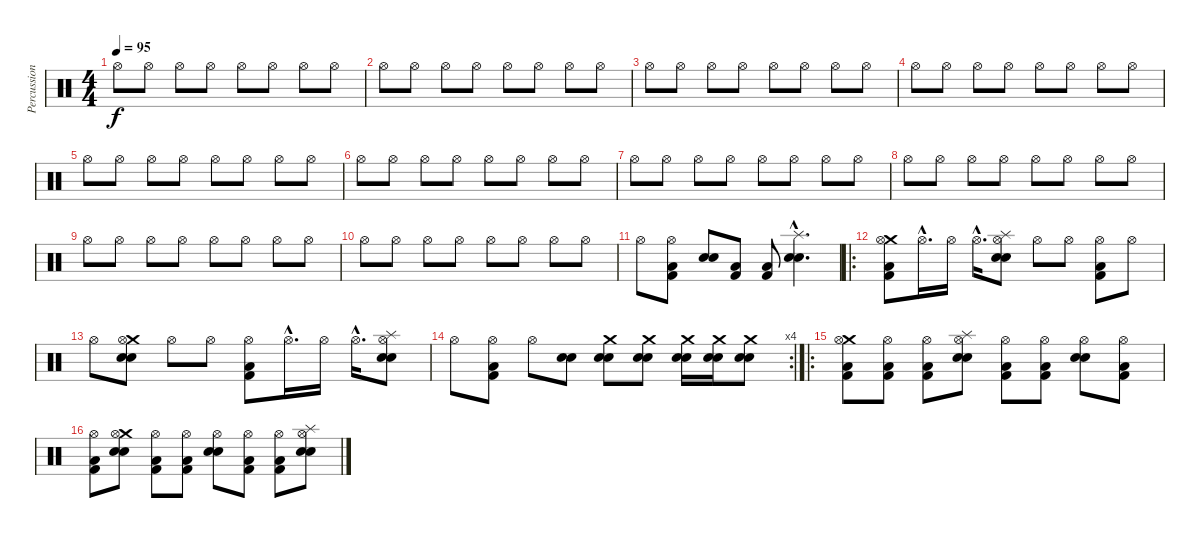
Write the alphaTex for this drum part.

\track ("Percussions" "Percussion") {instrument percussion}
\staff {score}
\articulation defaults
\ts (4 4)
\tempo 95
\clef neutral
\ks c "Hi-Hat (open)".8{dy f} "Hi-Hat (open)".8 "Hi-Hat (open)".8 "Hi-Hat (open)".8 "Hi-Hat (open)".8 "Hi-Hat (open)".8 "Hi-Hat (open)".8 "Hi-Hat (open)".8
|
"Hi-Hat (open)".8 "Hi-Hat (open)".8 "Hi-Hat (open)".8 "Hi-Hat (open)".8 "Hi-Hat (open)".8 "Hi-Hat (open)".8 "Hi-Hat (open)".8 "Hi-Hat (open)".8 |
"Hi-Hat (open)".8 "Hi-Hat (open)".8 "Hi-Hat (open)".8 "Hi-Hat (open)".8 "Hi-Hat (open)".8 "Hi-Hat (open)".8 "Hi-Hat (open)".8 "Hi-Hat (open)".8 |
"Hi-Hat (open)".8 "Hi-Hat (open)".8 "Hi-Hat (open)".8 "Hi-Hat (open)".8 "Hi-Hat (open)".8 "Hi-Hat (open)".8 "Hi-Hat (open)".8 "Hi-Hat (open)".8 |
"Hi-Hat (open)".8 "Hi-Hat (open)".8 "Hi-Hat (open)".8 "Hi-Hat (open)".8 "Hi-Hat (open)".8 "Hi-Hat (open)".8 "Hi-Hat (open)".8 "Hi-Hat (open)".8 |
"Hi-Hat (open)".8 "Hi-Hat (open)".8 "Hi-Hat (open)".8 "Hi-Hat (open)".8 "Hi-Hat (open)".8 "Hi-Hat (open)".8 "Hi-Hat (open)".8 "Hi-Hat (open)".8 |
"Hi-Hat (open)".8 "Hi-Hat (open)".8 "Hi-Hat (open)".8 "Hi-Hat (open)".8 "Hi-Hat (open)".8 "Hi-Hat (open)".8 "Hi-Hat (open)".8 "Hi-Hat (open)".8 |
"Hi-Hat (open)".8 "Hi-Hat (open)".8 "Hi-Hat (open)".8 "Hi-Hat (open)".8 "Hi-Hat (open)".8 "Hi-Hat (open)".8 "Hi-Hat (open)".8 "Hi-Hat (open)".8 |
"Hi-Hat (open)".8 "Hi-Hat (open)".8 "Hi-Hat (open)".8 "Hi-Hat (open)".8 "Hi-Hat (open)".8 "Hi-Hat (open)".8 "Hi-Hat (open)".8 "Hi-Hat (open)".8 |
"Hi-Hat (open)".8 "Hi-Hat (open)".8 "Hi-Hat (open)".8 "Hi-Hat (open)".8 "Hi-Hat (open)".8 "Hi-Hat (open)".8 "Hi-Hat (open)".8 "Hi-Hat (open)".8 |
"Hi-Hat (open)".8 ("Hi-Hat (open)" "Kick (hit) 2" "Low Floor Tom (hit)").8 ("Snare (hit) 2" "Electric Snare (hit)").8 ("Kick (hit) 2" "Low Floor Tom (hit)").8 ("Kick (hit) 2" "Low Floor Tom (hit)").8 ("Splash (hit)"{hac} "Snare (hit) 2"{hac} "Electric Snare (hit)"{hac}).4{d} |
\ro
("Crash medium (hit)" "Hi-Hat (open)" "Kick (hit) 2" "Low Floor Tom (hit)").8 "Hi-Hat (open)"{hac}.16{d} "Hi-Hat (open)".16 "Hi-Hat (open)"{hac}.16{d} ("Splash (hit)" "Hi-Hat (open)" "Electric Snare (hit)" "Snare (hit) 2").8 "Hi-Hat (open)".8 "Hi-Hat (open)".8 ("Hi-Hat (open)" "Kick (hit) 2" "Low Floor Tom (hit)").8 "Hi-Hat (open)".8 |
"Hi-Hat (open)".8 ("Crash medium (hit)" "Hi-Hat (open)" "Electric Snare (hit)" "Snare (hit) 2").8 "Hi-Hat (open)".8 "Hi-Hat (open)".8 ("Hi-Hat (open)" "Kick (hit) 2" "Low Floor Tom (hit)").8 "Hi-Hat (open)"{hac}.16{d} "Hi-Hat (open)".16 "Hi-Hat (open)"{hac}.16{d} ("Splash (hit)" "Hi-Hat (open)" "Electric Snare (hit)" "Snare (hit) 2").8 |
\rc 4 "Hi-Hat (open)".8
("Hi-Hat (open)" "Kick (hit) 2" "Low Floor Tom (hit)").8 "Hi-Hat (open)".8 ("Electric Snare (hit)" "Snare (hit) 2").8 ("Crash medium (hit)" "Electric Snare (hit)" "Snare (hit) 2").8 ("Crash medium (hit)" "Electric Snare (hit)" "Snare (hit) 2").8 ("Crash medium (hit)" "Electric Snare (hit)" "Snare (hit) 2").16 ("Crash medium (hit)" "Electric Snare (hit)" "Snare (hit) 2").16 ("Crash medium (hit)" "Electric Snare (hit)" "Snare (hit) 2").8 |
\ro
("Crash medium (hit)" "Hi-Hat (open)" "Kick (hit) 2" "Low Floor Tom (hit)").8 ("Hi-Hat (open)" "Kick (hit) 2" "Low Floor Tom (hit)").8 ("Hi-Hat (open)" "Kick (hit) 2" "Low Floor Tom (hit)").8 ("Splash (hit)" "Hi-Hat (open)" "Electric Snare (hit)" "Snare (hit) 2").8 ("Hi-Hat (open)" "Kick (hit) 2" "Low Floor Tom (hit)").8 ("Hi-Hat (open)" "Kick (hit) 2" "Low Floor Tom (hit)").8 ("Hi-Hat (open)" "Electric Snare (hit)" "Snare (hit) 2").8 ("Hi-Hat (open)" "Kick (hit) 2" "Low Floor Tom (hit)").8 |
("Hi-Hat (open)" "Kick (hit) 2" "Low Floor Tom (hit)").8 ("Crash medium (hit)" "Hi-Hat (open)" "Electric Snare (hit)" "Snare (hit) 2").8 ("Hi-Hat (open)" "Kick (hit) 2" "Low Floor Tom (hit)").8 ("Hi-Hat (open)" "Kick (hit) 2" "Low Floor Tom (hit)").8 ("Hi-Hat (open)" "Electric Snare (hit)" "Snare (hit) 2").8 ("Hi-Hat (open)" "Kick (hit) 2" "Low Floor Tom (hit)").8 ("Hi-Hat (open)" "Kick (hit) 2" "Low Floor Tom (hit)").8 ("Splash (hit)" "Hi-Hat (open)" "Electric Snare (hit)" "Snare (hit) 2").8
